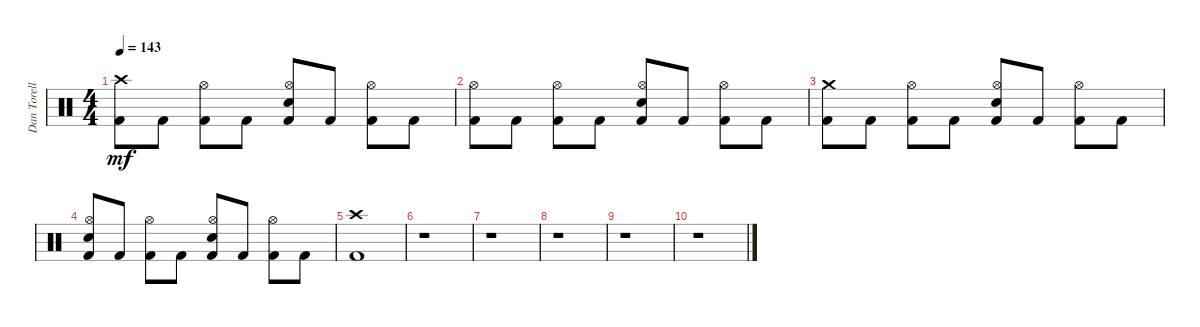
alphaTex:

\track ("Dan Torelli" "Dan Torell") {instrument percussion}
\staff {score}
\articulation defaults
\ts (4 4)
\tempo 143
\clef neutral
\ks c
("Crash high (hit)" "Kick (hit) 2").8{dy mf} "Kick (hit) 2".8 ("Hi-Hat (open)" "Kick (hit) 2").8 "Kick (hit) 2".8 ("Hi-Hat (open)" "Snare (hit) 2" "Kick (hit) 2").8 "Kick (hit) 2".8 ("Hi-Hat (open)" "Kick (hit) 2").8 "Kick (hit) 2".8 |
("Hi-Hat (open)" "Kick (hit) 2").8 "Kick (hit) 2".8 ("Hi-Hat (open)" "Kick (hit) 2").8 "Kick (hit) 2".8 ("Hi-Hat (open)" "Snare (hit) 2" "Kick (hit) 2").8 "Kick (hit) 2".8 ("Hi-Hat (open)" "Kick (hit) 2").8 "Kick (hit) 2".8 |
("Crash medium (hit)" "Kick (hit) 2").8 "Kick (hit) 2".8 ("Hi-Hat (open)" "Kick (hit) 2").8 "Kick (hit) 2".8 ("Hi-Hat (open)" "Snare (hit) 2" "Kick (hit) 2").8 "Kick (hit) 2".8 ("Hi-Hat (open)" "Kick (hit) 2").8 "Kick (hit) 2".8 |
("Hi-Hat (open)" "Snare (hit) 2" "Kick (hit) 2").8 "Kick (hit) 2".8 ("Hi-Hat (open)" "Kick (hit) 2").8 "Kick (hit) 2".8 ("Hi-Hat (open)" "Snare (hit) 2" "Kick (hit) 2").8 "Kick (hit) 2".8 ("Hi-Hat (open)" "Kick (hit) 2").8 "Kick (hit) 2".8 |
("Crash high (hit)" "Kick (hit) 2").1 |
r.1 |
r.1 |
r.1 |
r.1 |
r.1
